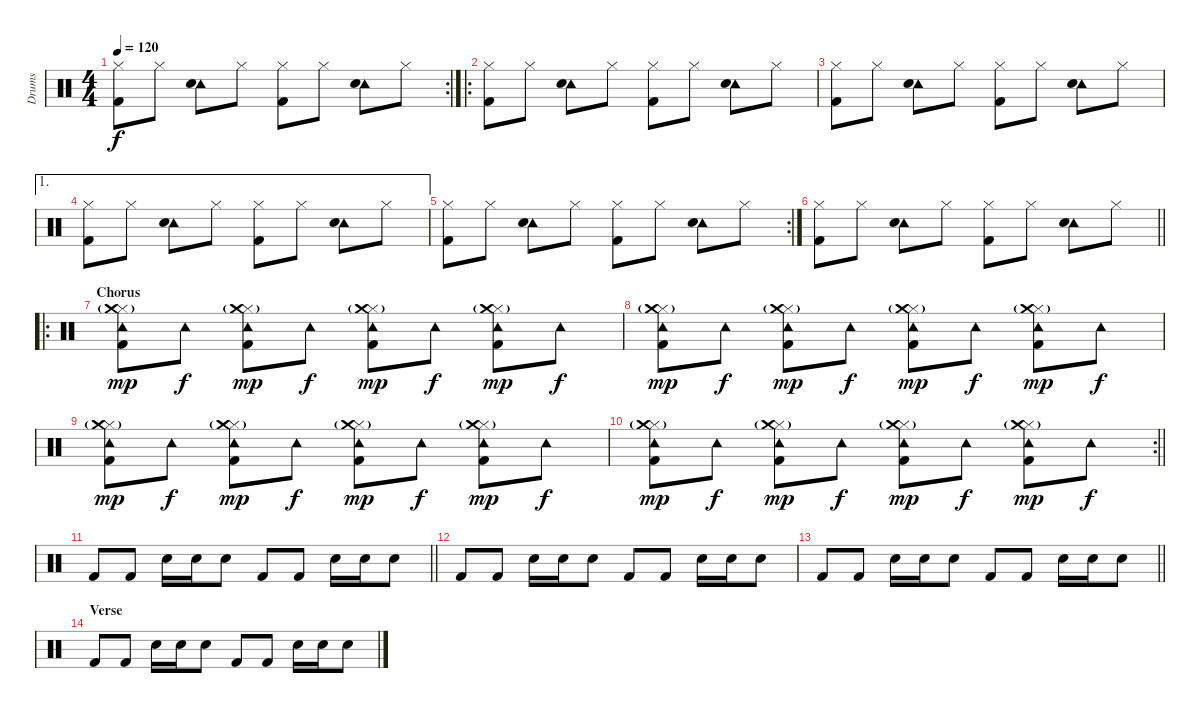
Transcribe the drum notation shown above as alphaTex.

\track ("Drums" "Drums") {instrument percussion}
\staff {score}
\articulation defaults
\rc 2
\ts (4 4)
\tempo 120
\clef neutral
\ks c
("Hi-Hat (closed)" "Kick (hit) 2").8{dy f} "Hi-Hat (closed)".8 ("Tambourine (hit)" "Snare (hit) 2").8 "Hi-Hat (closed)".8 ("Hi-Hat (closed)" "Kick (hit) 2").8 "Hi-Hat (closed)".8 ("Tambourine (hit)" "Snare (hit) 2").8 "Hi-Hat (closed)".8 |
\ro
("Hi-Hat (closed)" "Kick (hit) 2").8 "Hi-Hat (closed)".8 ("Tambourine (hit)" "Snare (hit) 2").8 "Hi-Hat (closed)".8 ("Hi-Hat (closed)" "Kick (hit) 2").8 "Hi-Hat (closed)".8 ("Tambourine (hit)" "Snare (hit) 2").8 "Hi-Hat (closed)".8 |
("Hi-Hat (closed)" "Kick (hit) 2").8 "Hi-Hat (closed)".8 ("Tambourine (hit)" "Snare (hit) 2").8 "Hi-Hat (closed)".8 ("Hi-Hat (closed)" "Kick (hit) 2").8 "Hi-Hat (closed)".8 ("Tambourine (hit)" "Snare (hit) 2").8 "Hi-Hat (closed)".8 |
\ae 1
("Hi-Hat (closed)" "Kick (hit) 2").8 "Hi-Hat (closed)".8 ("Tambourine (hit)" "Snare (hit) 2").8 "Hi-Hat (closed)".8 ("Hi-Hat (closed)" "Kick (hit) 2").8 "Hi-Hat (closed)".8 ("Tambourine (hit)" "Snare (hit) 2").8 "Hi-Hat (closed)".8 |
\rc 2
("Hi-Hat (closed)" "Kick (hit) 2").8 "Hi-Hat (closed)".8 ("Tambourine (hit)" "Snare (hit) 2").8 "Hi-Hat (closed)".8 ("Hi-Hat (closed)" "Kick (hit) 2").8 "Hi-Hat (closed)".8 ("Tambourine (hit)" "Snare (hit) 2").8 "Hi-Hat (closed)".8 |
\barLineRight lightlight
("Hi-Hat (closed)" "Kick (hit) 2").8 "Hi-Hat (closed)".8 ("Tambourine (hit)" "Snare (hit) 2").8 "Hi-Hat (closed)".8 ("Hi-Hat (closed)" "Kick (hit) 2").8 "Hi-Hat (closed)".8 ("Tambourine (hit)" "Snare (hit) 2").8 "Hi-Hat (closed)".8 |
\ro
\section ("" "Chorus")
("Hi-Hat (closed)" "Tambourine (hit)" "Crash medium (hit)"{g} "Kick (hit) 2").8{dy mp} "Tambourine (hit)".8{dy f} ("Hi-Hat (closed)" "Tambourine (hit)" "Crash medium (hit)"{g} "Kick (hit) 2").8{dy mp} "Tambourine (hit)".8{dy f} ("Hi-Hat (closed)" "Tambourine (hit)" "Crash medium (hit)"{g} "Kick (hit) 2").8{dy mp} "Tambourine (hit)".8{dy f} ("Hi-Hat (closed)" "Tambourine (hit)" "Crash medium (hit)"{g} "Kick (hit) 2").8{dy mp} "Tambourine (hit)".8{dy f} |
("Hi-Hat (closed)" "Tambourine (hit)" "Crash medium (hit)"{g} "Kick (hit) 2").8{dy mp} "Tambourine (hit)".8{dy f} ("Hi-Hat (closed)" "Tambourine (hit)" "Crash medium (hit)"{g} "Kick (hit) 2").8{dy mp} "Tambourine (hit)".8{dy f} ("Hi-Hat (closed)" "Tambourine (hit)" "Crash medium (hit)"{g} "Kick (hit) 2").8{dy mp} "Tambourine (hit)".8{dy f} ("Hi-Hat (closed)" "Tambourine (hit)" "Crash medium (hit)"{g} "Kick (hit) 2").8{dy mp} "Tambourine (hit)".8{dy f} |
("Hi-Hat (closed)" "Tambourine (hit)" "Crash medium (hit)"{g} "Kick (hit) 2").8{dy mp} "Tambourine (hit)".8{dy f} ("Hi-Hat (closed)" "Tambourine (hit)" "Crash medium (hit)"{g} "Kick (hit) 2").8{dy mp} "Tambourine (hit)".8{dy f} ("Hi-Hat (closed)" "Tambourine (hit)" "Crash medium (hit)"{g} "Kick (hit) 2").8{dy mp} "Tambourine (hit)".8{dy f} ("Hi-Hat (closed)" "Tambourine (hit)" "Crash medium (hit)"{g} "Kick (hit) 2").8{dy mp} "Tambourine (hit)".8{dy f} |
\rc 2
\barLineRight lightlight
("Hi-Hat (closed)" "Tambourine (hit)" "Crash medium (hit)"{g} "Kick (hit) 2").8{dy mp} "Tambourine (hit)".8{dy f} ("Hi-Hat (closed)" "Tambourine (hit)" "Crash medium (hit)"{g} "Kick (hit) 2").8{dy mp} "Tambourine (hit)".8{dy f} ("Hi-Hat (closed)" "Tambourine (hit)" "Crash medium (hit)"{g} "Kick (hit) 2").8{dy mp} "Tambourine (hit)".8{dy f} ("Hi-Hat (closed)" "Tambourine (hit)" "Crash medium (hit)"{g} "Kick (hit) 2").8{dy mp} "Tambourine (hit)".8{dy f} |
\barLineRight lightlight "Kick (hit) 2".8 "Kick (hit) 2".8 "Snare (hit) 2".16 "Snare (hit) 2".16 "Snare (hit) 2".8 "Kick (hit) 2".8 "Kick (hit) 2".8 "Snare (hit) 2".16 "Snare (hit) 2".16 "Snare (hit) 2".8
|
"Kick (hit) 2".8 "Kick (hit) 2".8 "Snare (hit) 2".16 "Snare (hit) 2".16 "Snare (hit) 2".8 "Kick (hit) 2".8 "Kick (hit) 2".8 "Snare (hit) 2".16 "Snare (hit) 2".16 "Snare (hit) 2".8 |
\barLineRight lightlight "Kick (hit) 2".8 "Kick (hit) 2".8 "Snare (hit) 2".16 "Snare (hit) 2".16 "Snare (hit) 2".8 "Kick (hit) 2".8 "Kick (hit) 2".8 "Snare (hit) 2".16 "Snare (hit) 2".16 "Snare (hit) 2".8
|
\section ("" "Verse")
"Kick (hit) 2".8 "Kick (hit) 2".8 "Snare (hit) 2".16 "Snare (hit) 2".16 "Snare (hit) 2".8 "Kick (hit) 2".8 "Kick (hit) 2".8 "Snare (hit) 2".16 "Snare (hit) 2".16 "Snare (hit) 2".8
